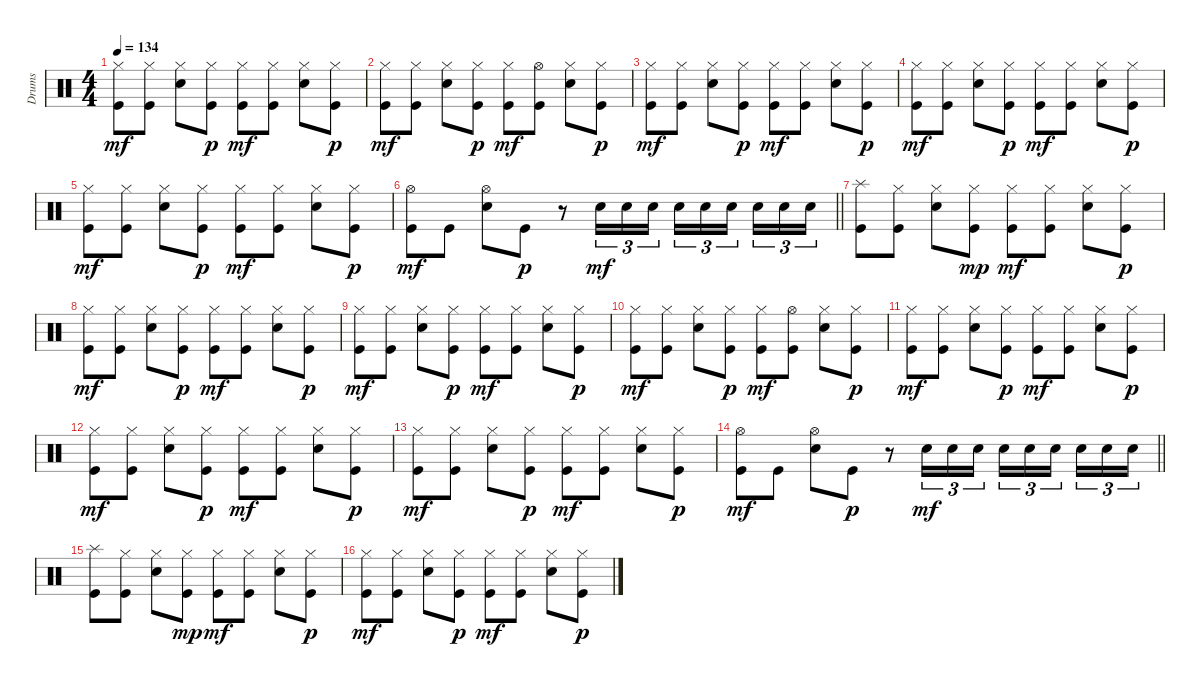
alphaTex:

\track ("Drums" "Drums") {instrument percussion}
\staff {score}
\articulation defaults
\ts (4 4)
\tempo 134
\clef neutral
\ks c
("Hi-Hat (closed)" "Kick (hit)").8{dy mf} ("Hi-Hat (closed)" "Kick (hit)").8 ("Hi-Hat (closed)" "Snare (hit) 2").8 ("Hi-Hat (closed)" "Kick (hit)").8{dy p} ("Hi-Hat (closed)" "Kick (hit)").8{dy mf} ("Hi-Hat (closed)" "Kick (hit)").8 ("Hi-Hat (closed)" "Snare (hit) 2").8 ("Hi-Hat (closed)" "Kick (hit)").8{dy p} |
("Hi-Hat (closed)" "Kick (hit)").8{dy mf} ("Hi-Hat (closed)" "Kick (hit)").8 ("Hi-Hat (closed)" "Snare (hit) 2").8 ("Hi-Hat (closed)" "Kick (hit)").8{dy p} ("Hi-Hat (closed)" "Kick (hit)").8{dy mf} ("Hi-Hat (open)" "Kick (hit)").8 ("Hi-Hat (closed)" "Snare (hit) 2").8 ("Hi-Hat (closed)" "Kick (hit)").8{dy p} |
("Hi-Hat (closed)" "Kick (hit)").8{dy mf} ("Hi-Hat (closed)" "Kick (hit)").8 ("Hi-Hat (closed)" "Snare (hit) 2").8 ("Hi-Hat (closed)" "Kick (hit)").8{dy p} ("Hi-Hat (closed)" "Kick (hit)").8{dy mf} ("Hi-Hat (closed)" "Kick (hit)").8 ("Hi-Hat (closed)" "Snare (hit) 2").8 ("Hi-Hat (closed)" "Kick (hit)").8{dy p} |
("Hi-Hat (closed)" "Kick (hit)").8{dy mf} ("Hi-Hat (closed)" "Kick (hit)").8 ("Hi-Hat (closed)" "Snare (hit) 2").8 ("Hi-Hat (closed)" "Kick (hit)").8{dy p} ("Hi-Hat (closed)" "Kick (hit)").8{dy mf} ("Hi-Hat (closed)" "Kick (hit)").8 ("Hi-Hat (closed)" "Snare (hit) 2").8 ("Hi-Hat (closed)" "Kick (hit)").8{dy p} |
("Hi-Hat (closed)" "Kick (hit)").8{dy mf} ("Hi-Hat (closed)" "Kick (hit)").8 ("Hi-Hat (closed)" "Snare (hit) 2").8 ("Hi-Hat (closed)" "Kick (hit)").8{dy p} ("Hi-Hat (closed)" "Kick (hit)").8{dy mf} ("Hi-Hat (closed)" "Kick (hit)").8 ("Hi-Hat (closed)" "Snare (hit) 2").8 ("Hi-Hat (closed)" "Kick (hit)").8{dy p} |
\barLineRight lightlight
("Hi-Hat (open)" "Kick (hit)").8{dy mf} "Kick (hit)".8 ("Hi-Hat (open)" "Snare (hit) 2").8 "Kick (hit)".8{dy p} r.8 "Snare (hit) 2".16{tu (3 2) dy mf} "Snare (hit) 2".16{tu (3 2)} "Snare (hit) 2".16{tu (3 2)} "Snare (hit) 2".16{tu (3 2)} "Snare (hit) 2".16{tu (3 2)} "Snare (hit) 2".16{tu (3 2) beam splitsecondary} "Snare (hit) 2".16{tu (3 2)} "Snare (hit) 2".16{tu (3 2)} "Snare (hit) 2".16{tu (3 2)} |
("Splash (hit)" "Kick (hit)").8 ("Hi-Hat (closed)" "Kick (hit)").8 ("Hi-Hat (closed)" "Snare (hit) 2").8 ("Hi-Hat (closed)" "Kick (hit)").8{dy mp} ("Hi-Hat (closed)" "Kick (hit)").8{dy mf} ("Hi-Hat (closed)" "Kick (hit)").8 ("Hi-Hat (closed)" "Snare (hit) 2").8 ("Hi-Hat (closed)" "Kick (hit)").8{dy p} |
("Hi-Hat (closed)" "Kick (hit)").8{dy mf} ("Hi-Hat (closed)" "Kick (hit)").8 ("Hi-Hat (closed)" "Snare (hit) 2").8 ("Hi-Hat (closed)" "Kick (hit)").8{dy p} ("Hi-Hat (closed)" "Kick (hit)").8{dy mf} ("Hi-Hat (closed)" "Kick (hit)").8 ("Hi-Hat (closed)" "Snare (hit) 2").8 ("Hi-Hat (closed)" "Kick (hit)").8{dy p} |
("Hi-Hat (closed)" "Kick (hit)").8{dy mf} ("Hi-Hat (closed)" "Kick (hit)").8 ("Hi-Hat (closed)" "Snare (hit) 2").8 ("Hi-Hat (closed)" "Kick (hit)").8{dy p} ("Hi-Hat (closed)" "Kick (hit)").8{dy mf} ("Hi-Hat (closed)" "Kick (hit)").8 ("Hi-Hat (closed)" "Snare (hit) 2").8 ("Hi-Hat (closed)" "Kick (hit)").8{dy p} |
("Hi-Hat (closed)" "Kick (hit)").8{dy mf} ("Hi-Hat (closed)" "Kick (hit)").8 ("Hi-Hat (closed)" "Snare (hit) 2").8 ("Hi-Hat (closed)" "Kick (hit)").8{dy p} ("Hi-Hat (closed)" "Kick (hit)").8{dy mf} ("Hi-Hat (open)" "Kick (hit)").8 ("Hi-Hat (closed)" "Snare (hit) 2").8 ("Hi-Hat (closed)" "Kick (hit)").8{dy p} |
("Hi-Hat (closed)" "Kick (hit)").8{dy mf} ("Hi-Hat (closed)" "Kick (hit)").8 ("Hi-Hat (closed)" "Snare (hit) 2").8 ("Hi-Hat (closed)" "Kick (hit)").8{dy p} ("Hi-Hat (closed)" "Kick (hit)").8{dy mf} ("Hi-Hat (closed)" "Kick (hit)").8 ("Hi-Hat (closed)" "Snare (hit) 2").8 ("Hi-Hat (closed)" "Kick (hit)").8{dy p} |
("Hi-Hat (closed)" "Kick (hit)").8{dy mf} ("Hi-Hat (closed)" "Kick (hit)").8 ("Hi-Hat (closed)" "Snare (hit) 2").8 ("Hi-Hat (closed)" "Kick (hit)").8{dy p} ("Hi-Hat (closed)" "Kick (hit)").8{dy mf} ("Hi-Hat (closed)" "Kick (hit)").8 ("Hi-Hat (closed)" "Snare (hit) 2").8 ("Hi-Hat (closed)" "Kick (hit)").8{dy p} |
("Hi-Hat (closed)" "Kick (hit)").8{dy mf} ("Hi-Hat (closed)" "Kick (hit)").8 ("Hi-Hat (closed)" "Snare (hit) 2").8 ("Hi-Hat (closed)" "Kick (hit)").8{dy p} ("Hi-Hat (closed)" "Kick (hit)").8{dy mf} ("Hi-Hat (closed)" "Kick (hit)").8 ("Hi-Hat (closed)" "Snare (hit) 2").8 ("Hi-Hat (closed)" "Kick (hit)").8{dy p} |
\barLineRight lightlight
("Hi-Hat (open)" "Kick (hit)").8{dy mf} "Kick (hit)".8 ("Hi-Hat (open)" "Snare (hit) 2").8 "Kick (hit)".8{dy p} r.8 "Snare (hit) 2".16{tu (3 2) dy mf} "Snare (hit) 2".16{tu (3 2)} "Snare (hit) 2".16{tu (3 2)} "Snare (hit) 2".16{tu (3 2)} "Snare (hit) 2".16{tu (3 2)} "Snare (hit) 2".16{tu (3 2) beam splitsecondary} "Snare (hit) 2".16{tu (3 2)} "Snare (hit) 2".16{tu (3 2)} "Snare (hit) 2".16{tu (3 2)} |
("Splash (hit)" "Kick (hit)").8 ("Hi-Hat (closed)" "Kick (hit)").8 ("Hi-Hat (closed)" "Snare (hit) 2").8 ("Hi-Hat (closed)" "Kick (hit)").8{dy mp} ("Hi-Hat (closed)" "Kick (hit)").8{dy mf} ("Hi-Hat (closed)" "Kick (hit)").8 ("Hi-Hat (closed)" "Snare (hit) 2").8 ("Hi-Hat (closed)" "Kick (hit)").8{dy p} |
("Hi-Hat (closed)" "Kick (hit)").8{dy mf} ("Hi-Hat (closed)" "Kick (hit)").8 ("Hi-Hat (closed)" "Snare (hit) 2").8 ("Hi-Hat (closed)" "Kick (hit)").8{dy p} ("Hi-Hat (closed)" "Kick (hit)").8{dy mf} ("Hi-Hat (closed)" "Kick (hit)").8 ("Hi-Hat (closed)" "Snare (hit) 2").8 ("Hi-Hat (closed)" "Kick (hit)").8{dy p}
